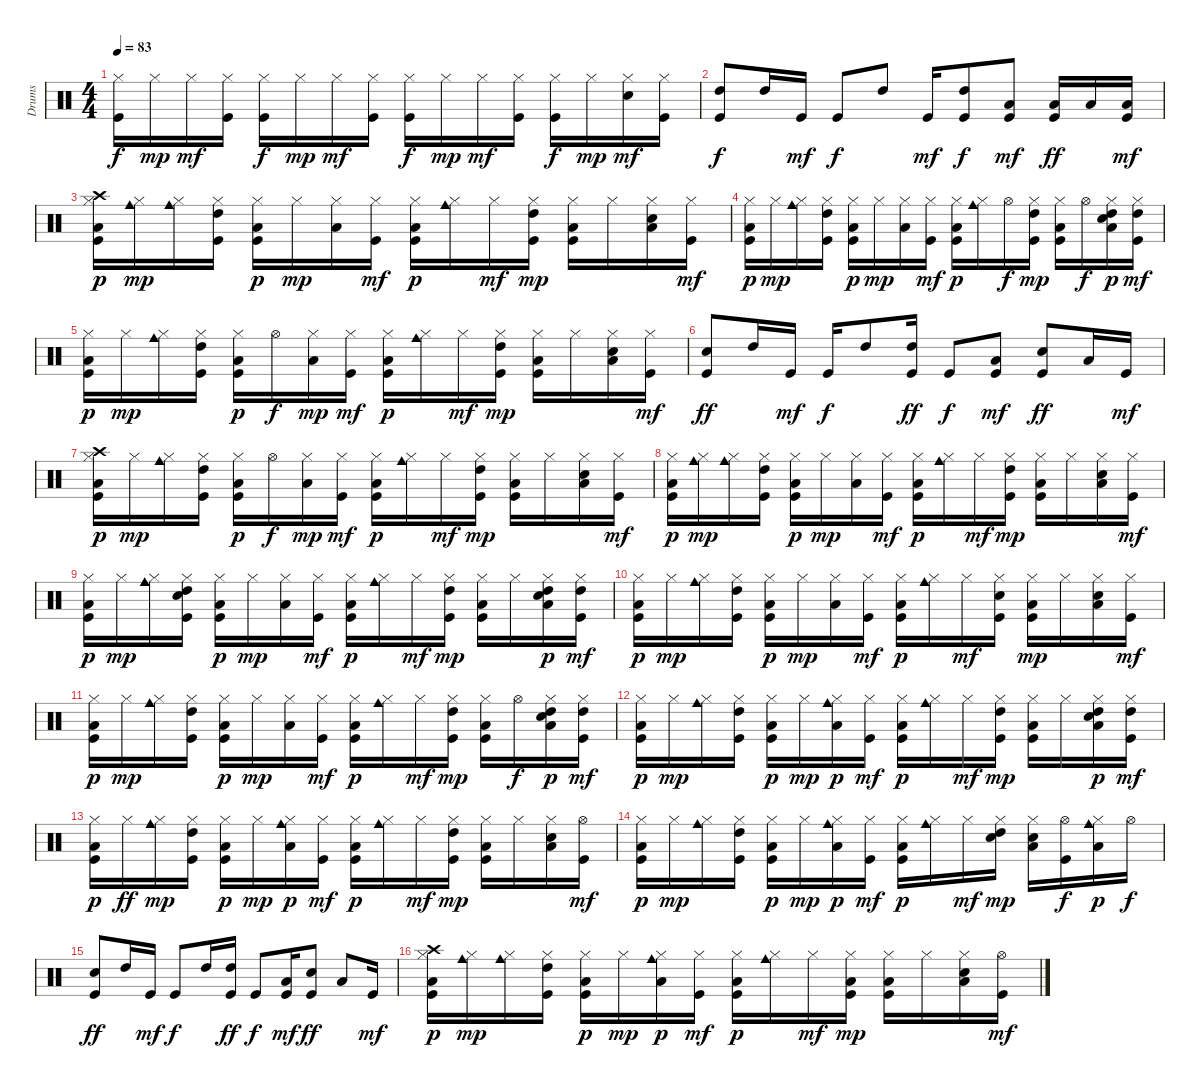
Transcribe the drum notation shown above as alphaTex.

\track ("Drums" "Drums") {instrument percussion}
\staff {score}
\articulation defaults
\ts (4 4)
\tempo 83
\clef neutral
\ks c
("Kick (hit)" "Hi-Hat (closed)").16{dy f} "Hi-Hat (closed)".16{dy mp} "Hi-Hat (closed)".16{dy mf} ("Kick (hit)" "Hi-Hat (closed)").16 ("Kick (hit)" "Hi-Hat (closed)").16{dy f} "Hi-Hat (closed)".16{dy mp} "Hi-Hat (closed)".16{dy mf} ("Kick (hit)" "Hi-Hat (closed)").16 ("Kick (hit)" "Hi-Hat (closed)").16{dy f} "Hi-Hat (closed)".16{dy mp} "Hi-Hat (closed)".16{dy mf} ("Kick (hit)" "Hi-Hat (closed)").16 ("Kick (hit)" "Hi-Hat (closed)").16{dy f} "Hi-Hat (closed)".16{dy mp} ("Snare (hit) 2" "Hi-Hat (closed)").16{dy mf} ("Kick (hit)" "Hi-Hat (closed)").16 |
("Kick (hit)" "High Tom (hit)").8{dy f} "High Tom (hit)".16 "Kick (hit)".16{dy mf} "Kick (hit)".8{dy f} "High Tom (hit)".8 "Kick (hit)".16{dy mf} ("Kick (hit)" "High Tom (hit)").8{dy f} ("Kick (hit)" "Low Tom (hit)").8{dy mf} ("Kick (hit)" "Low Tom (hit)").16{dy ff} "Low Floor Tom (hit)".16 ("Kick (hit)" "Low Floor Tom (hit)").16{dy mf} |
("Kick (hit)" "Hi-Hat (closed)" "Low Tom (hit)" "Crash high (hit)").16{dy p} ("Hi-Hat (closed)" "Cowbell medium (hit)").16{dy mp} ("Hi-Hat (closed)" "Cowbell medium (hit)").16 ("Kick (hit)" "Hi-Hat (closed)" "High Tom (hit)").16 ("Kick (hit)" "Hi-Hat (closed)" "Low Tom (hit)").16{dy p} "Hi-Hat (closed)".16{dy mp} ("Hi-Hat (closed)" "Low Floor Tom (hit)").16 ("Kick (hit)" "Hi-Hat (closed)").16{dy mf} ("Kick (hit)" "Hi-Hat (closed)" "Low Tom (hit)").16{dy p} ("Hi-Hat (closed)" "Cowbell medium (hit)").16 "Hi-Hat (closed)".16{dy mf} ("Kick (hit)" "Hi-Hat (closed)" "High Tom (hit)").16{dy mp} ("Kick (hit)" "Hi-Hat (closed)" "Low Tom (hit)").16 "Hi-Hat (closed)".16 ("Snare (hit) 2" "Hi-Hat (closed)" "Low Floor Tom (hit)").16 ("Kick (hit)" "Hi-Hat (closed)").16{dy mf} |
("Kick (hit)" "Hi-Hat (closed)" "Low Tom (hit)").16{dy p} "Hi-Hat (closed)".16{dy mp} ("Hi-Hat (closed)" "Cowbell medium (hit)").16 ("Kick (hit)" "Hi-Hat (closed)" "High Tom (hit)").16 ("Kick (hit)" "Hi-Hat (closed)" "Low Tom (hit)").16{dy p} "Hi-Hat (closed)".16{dy mp} ("Hi-Hat (closed)" "Low Floor Tom (hit)").16 ("Kick (hit)" "Hi-Hat (closed)").16{dy mf} ("Kick (hit)" "Hi-Hat (closed)" "Low Tom (hit)").16{dy p} ("Hi-Hat (closed)" "Cowbell medium (hit)").16 "Hi-Hat (open)".16{dy f} ("Kick (hit)" "Hi-Hat (closed)" "High Tom (hit)").16{dy mp} ("Kick (hit)" "Hi-Hat (closed)" "Low Tom (hit)").16 "Hi-Hat (open)".16{dy f} ("Snare (hit) 2" "Hi-Hat (closed)" "High Tom (hit)" "Low Floor Tom (hit)").16{dy p} ("Kick (hit)" "Hi-Hat (closed)" "High Tom (hit)").16{dy mf} |
("Kick (hit)" "Hi-Hat (closed)" "Low Tom (hit)").16{dy p} "Hi-Hat (closed)".16{dy mp} ("Hi-Hat (closed)" "Cowbell medium (hit)").16 ("Kick (hit)" "Hi-Hat (closed)" "High Tom (hit)").16 ("Kick (hit)" "Hi-Hat (closed)" "Low Tom (hit)").16{dy p} "Hi-Hat (open)".16{dy f} ("Hi-Hat (closed)" "Low Floor Tom (hit)").16{dy mp} ("Kick (hit)" "Hi-Hat (closed)").16{dy mf} ("Kick (hit)" "Hi-Hat (closed)" "Low Tom (hit)").16{dy p} ("Hi-Hat (closed)" "Cowbell medium (hit)").16 "Hi-Hat (closed)".16{dy mf} ("Kick (hit)" "Hi-Hat (closed)" "High Tom (hit)").16{dy mp} ("Kick (hit)" "Hi-Hat (closed)" "Low Tom (hit)").16 "Hi-Hat (closed)".16 ("Snare (hit) 2" "Hi-Hat (closed)" "Low Floor Tom (hit)").16 ("Kick (hit)" "Hi-Hat (closed)").16{dy mf} |
("Kick (hit)" "Snare (hit) 2").8{dy ff} "High Tom (hit)".16 "Kick (hit)".16{dy mf} "Kick (hit)".16{dy f} "High Tom (hit)".8 ("Kick (hit)" "High Tom (hit)").16{dy ff} "Kick (hit)".8{dy f} ("Kick (hit)" "Low Tom (hit)").8{dy mf} ("Kick (hit)" "Snare (hit) 2").8{dy ff} "Low Tom (hit)".16 "Kick (hit)".16{dy mf} |
("Kick (hit)" "Hi-Hat (closed)" "Low Tom (hit)" "Crash high (hit)").16{dy p} "Hi-Hat (closed)".16{dy mp} ("Hi-Hat (closed)" "Cowbell medium (hit)").16 ("Kick (hit)" "Hi-Hat (closed)" "High Tom (hit)").16 ("Kick (hit)" "Hi-Hat (closed)" "Low Tom (hit)").16{dy p} "Hi-Hat (open)".16{dy f} ("Hi-Hat (closed)" "Low Floor Tom (hit)").16{dy mp} ("Kick (hit)" "Hi-Hat (closed)").16{dy mf} ("Kick (hit)" "Hi-Hat (closed)" "Low Tom (hit)").16{dy p} ("Hi-Hat (closed)" "Cowbell medium (hit)").16 "Hi-Hat (closed)".16{dy mf} ("Kick (hit)" "Hi-Hat (closed)" "High Tom (hit)").16{dy mp} ("Kick (hit)" "Hi-Hat (closed)" "Low Tom (hit)").16 "Hi-Hat (closed)".16 ("Snare (hit) 2" "Hi-Hat (closed)" "Low Floor Tom (hit)").16 ("Kick (hit)" "Hi-Hat (closed)").16{dy mf} |
("Kick (hit)" "Hi-Hat (closed)" "Low Tom (hit)").16{dy p} ("Hi-Hat (closed)" "Cowbell medium (hit)").16{dy mp} ("Hi-Hat (closed)" "Cowbell medium (hit)").16 ("Kick (hit)" "Hi-Hat (closed)" "High Tom (hit)").16 ("Kick (hit)" "Hi-Hat (closed)" "Low Tom (hit)").16{dy p} "Hi-Hat (closed)".16{dy mp} ("Hi-Hat (closed)" "Low Floor Tom (hit)").16 ("Kick (hit)" "Hi-Hat (closed)").16{dy mf} ("Kick (hit)" "Hi-Hat (closed)" "Low Tom (hit)").16{dy p} ("Hi-Hat (closed)" "Cowbell medium (hit)").16 "Hi-Hat (closed)".16{dy mf} ("Kick (hit)" "Hi-Hat (closed)" "High Tom (hit)").16{dy mp} ("Kick (hit)" "Hi-Hat (closed)" "Low Tom (hit)").16 "Hi-Hat (closed)".16 ("Snare (hit) 2" "Hi-Hat (closed)" "Low Floor Tom (hit)").16 ("Kick (hit)" "Hi-Hat (closed)").16{dy mf} |
("Kick (hit)" "Hi-Hat (closed)" "Low Tom (hit)").16{dy p} "Hi-Hat (closed)".16{dy mp} ("Hi-Hat (closed)" "Cowbell medium (hit)").16 ("Kick (hit)" "Snare (hit) 2" "Hi-Hat (closed)" "High Tom (hit)").16 ("Kick (hit)" "Hi-Hat (closed)" "Low Tom (hit)").16{dy p} "Hi-Hat (closed)".16{dy mp} ("Hi-Hat (closed)" "Low Floor Tom (hit)").16 ("Kick (hit)" "Hi-Hat (closed)").16{dy mf} ("Kick (hit)" "Hi-Hat (closed)" "Low Tom (hit)").16{dy p} ("Hi-Hat (closed)" "Cowbell medium (hit)").16 "Hi-Hat (closed)".16{dy mf} ("Kick (hit)" "Hi-Hat (closed)" "High Tom (hit)").16{dy mp} ("Kick (hit)" "Hi-Hat (closed)" "Low Tom (hit)").16 "Hi-Hat (closed)".16 ("Snare (hit) 2" "Hi-Hat (closed)" "High Tom (hit)" "Low Floor Tom (hit)").16{dy p} ("Kick (hit)" "Hi-Hat (closed)" "High Tom (hit)").16{dy mf} |
("Kick (hit)" "Hi-Hat (closed)" "Low Tom (hit)").16{dy p} "Hi-Hat (closed)".16{dy mp} ("Hi-Hat (closed)" "Cowbell medium (hit)").16 ("Kick (hit)" "Hi-Hat (closed)" "High Tom (hit)").16 ("Kick (hit)" "Hi-Hat (closed)" "Low Tom (hit)").16{dy p} "Hi-Hat (closed)".16{dy mp} ("Hi-Hat (closed)" "Low Floor Tom (hit)").16 ("Kick (hit)" "Hi-Hat (closed)").16{dy mf} ("Kick (hit)" "Hi-Hat (closed)" "Low Tom (hit)").16{dy p} ("Hi-Hat (closed)" "Cowbell medium (hit)").16 "Hi-Hat (closed)".16{dy mf} ("Kick (hit)" "Snare (hit) 2" "Hi-Hat (closed)").16 ("Kick (hit)" "Hi-Hat (closed)" "Low Tom (hit)").16{dy mp} "Hi-Hat (closed)".16 ("Snare (hit) 2" "Hi-Hat (closed)" "Low Floor Tom (hit)").16 ("Kick (hit)" "Hi-Hat (closed)").16{dy mf} |
("Kick (hit)" "Hi-Hat (closed)" "Low Tom (hit)").16{dy p} "Hi-Hat (closed)".16{dy mp} ("Hi-Hat (closed)" "Cowbell medium (hit)").16 ("Kick (hit)" "Hi-Hat (closed)" "High Tom (hit)").16 ("Kick (hit)" "Hi-Hat (closed)" "Low Tom (hit)").16{dy p} "Hi-Hat (closed)".16{dy mp} ("Hi-Hat (closed)" "Low Floor Tom (hit)").16 ("Kick (hit)" "Hi-Hat (closed)").16{dy mf} ("Kick (hit)" "Hi-Hat (closed)" "Low Tom (hit)").16{dy p} ("Hi-Hat (closed)" "Cowbell medium (hit)").16 "Hi-Hat (closed)".16{dy mf} ("Kick (hit)" "Hi-Hat (closed)" "High Tom (hit)").16{dy mp} ("Kick (hit)" "Hi-Hat (closed)" "Low Tom (hit)").16 "Hi-Hat (open)".16{dy f} ("Snare (hit) 2" "Hi-Hat (closed)" "High Tom (hit)" "Low Floor Tom (hit)").16{dy p} ("Kick (hit)" "Hi-Hat (closed)" "High Tom (hit)").16{dy mf} |
("Kick (hit)" "Hi-Hat (closed)" "Low Tom (hit)").16{dy p} "Hi-Hat (closed)".16{dy mp} ("Hi-Hat (closed)" "Cowbell medium (hit)").16 ("Kick (hit)" "Hi-Hat (closed)" "High Tom (hit)").16 ("Kick (hit)" "Hi-Hat (closed)" "Low Tom (hit)").16{dy p} "Hi-Hat (closed)".16{dy mp} ("Hi-Hat (closed)" "Cowbell medium (hit)" "Low Floor Tom (hit)").16{dy p} ("Kick (hit)" "Hi-Hat (closed)").16{dy mf} ("Kick (hit)" "Hi-Hat (closed)" "Low Tom (hit)").16{dy p} ("Hi-Hat (closed)" "Cowbell medium (hit)").16 "Hi-Hat (closed)".16{dy mf} ("Kick (hit)" "Hi-Hat (closed)" "High Tom (hit)").16{dy mp} ("Kick (hit)" "Hi-Hat (closed)" "Low Tom (hit)").16 "Hi-Hat (closed)".16 ("Snare (hit) 2" "Hi-Hat (closed)" "High Tom (hit)" "Low Floor Tom (hit)").16{dy p} ("Kick (hit)" "Hi-Hat (closed)" "High Tom (hit)").16{dy mf} |
("Kick (hit)" "Hi-Hat (closed)" "Low Tom (hit)").16{dy p} "Hi-Hat (closed)".16{dy ff} ("Hi-Hat (closed)" "Cowbell medium (hit)").16{dy mp} ("Kick (hit)" "Hi-Hat (closed)" "High Tom (hit)").16 ("Kick (hit)" "Hi-Hat (closed)" "Low Tom (hit)").16{dy p} "Hi-Hat (closed)".16{dy mp} ("Hi-Hat (closed)" "Cowbell medium (hit)" "Low Floor Tom (hit)").16{dy p} ("Kick (hit)" "Hi-Hat (closed)").16{dy mf} ("Kick (hit)" "Hi-Hat (closed)" "Low Tom (hit)").16{dy p} ("Hi-Hat (closed)" "Cowbell medium (hit)").16 "Hi-Hat (closed)".16{dy mf} ("Kick (hit)" "Hi-Hat (closed)" "High Tom (hit)").16{dy mp} ("Kick (hit)" "Hi-Hat (closed)" "Low Tom (hit)").16 "Hi-Hat (closed)".16 ("Snare (hit) 2" "Hi-Hat (closed)" "Low Floor Tom (hit)").16 ("Kick (hit)" "Hi-Hat (open)").16{dy mf} |
("Kick (hit)" "Hi-Hat (closed)" "Low Tom (hit)").16{dy p} "Hi-Hat (closed)".16{dy mp} ("Hi-Hat (closed)" "Cowbell medium (hit)").16 ("Kick (hit)" "Hi-Hat (closed)" "High Tom (hit)").16 ("Kick (hit)" "Hi-Hat (closed)" "Low Tom (hit)").16{dy p} "Hi-Hat (closed)".16{dy mp} ("Hi-Hat (closed)" "Cowbell medium (hit)" "Low Floor Tom (hit)").16{dy p} ("Kick (hit)" "Hi-Hat (closed)").16{dy mf} ("Kick (hit)" "Hi-Hat (closed)" "Low Tom (hit)").16{dy p} ("Hi-Hat (closed)" "Cowbell medium (hit)").16 "Hi-Hat (closed)".16{dy mf} ("Snare (hit) 2" "Hi-Hat (closed)" "High Tom (hit)").16{dy mp} ("Snare (hit) 2" "Hi-Hat (closed)" "Low Tom (hit)").16 ("Kick (hit)" "Hi-Hat (open)").16{dy f} ("Hi-Hat (closed)" "Cowbell medium (hit)" "Low Floor Tom (hit)").16{dy p} "Hi-Hat (open)".16{dy f} |
("Kick (hit)" "Snare (hit) 2").8{dy ff} "High Tom (hit)".16 "Kick (hit)".16{dy mf} "Kick (hit)".8{dy f} "High Tom (hit)".16 ("Kick (hit)" "High Tom (hit)").16{dy ff} "Kick (hit)".8{dy f} ("Kick (hit)" "Low Tom (hit)").16{dy mf} ("Kick (hit)" "Snare (hit) 2").8{dy ff} "Low Tom (hit)".8 "Kick (hit)".16{dy mf} |
("Kick (hit)" "Hi-Hat (closed)" "Low Tom (hit)" "Crash high (hit)").16{dy p} ("Hi-Hat (closed)" "Cowbell medium (hit)").16{dy mp} ("Hi-Hat (closed)" "Cowbell medium (hit)").16 ("Kick (hit)" "Hi-Hat (closed)" "High Tom (hit)").16 ("Kick (hit)" "Hi-Hat (closed)" "Low Tom (hit)").16{dy p} "Hi-Hat (closed)".16{dy mp} ("Hi-Hat (closed)" "Cowbell medium (hit)" "Low Floor Tom (hit)").16{dy p} ("Kick (hit)" "Hi-Hat (closed)").16{dy mf} ("Kick (hit)" "Hi-Hat (closed)" "Low Tom (hit)").16{dy p} ("Hi-Hat (closed)" "Cowbell medium (hit)").16 "Hi-Hat (closed)".16{dy mf} ("Kick (hit)" "Hi-Hat (closed)" "Low Tom (hit)").16{dy mp} ("Kick (hit)" "Hi-Hat (closed)" "Low Tom (hit)").16 "Hi-Hat (closed)".16 ("Snare (hit) 2" "Hi-Hat (closed)" "Low Floor Tom (hit)").16 ("Kick (hit)" "Hi-Hat (open)").16{dy mf}
